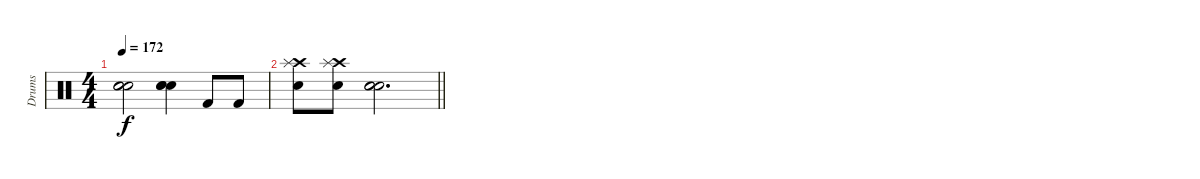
\track ("Drums" "Drums") {instrument percussion}
\staff {score}
\articulation defaults
\ts (4 4)
\tempo 172
\clef neutral
\ks c
("Snare (hit)" "Snare (hit)" "Snare (hit)").2{dy f} ("Snare (hit)" "Snare (hit)" "Snare (hit)").4 "Kick (hit) 2".8 "Kick (hit) 2".8 |
\barLineRight lightlight
("Crash high (hit)" "Splash (hit)" "Snare (hit) 2").8 ("Crash high (hit)" "Splash (hit)" "Snare (hit) 2").8 ("Snare (hit)" "Snare (hit)" "Snare (hit)").2{d}
